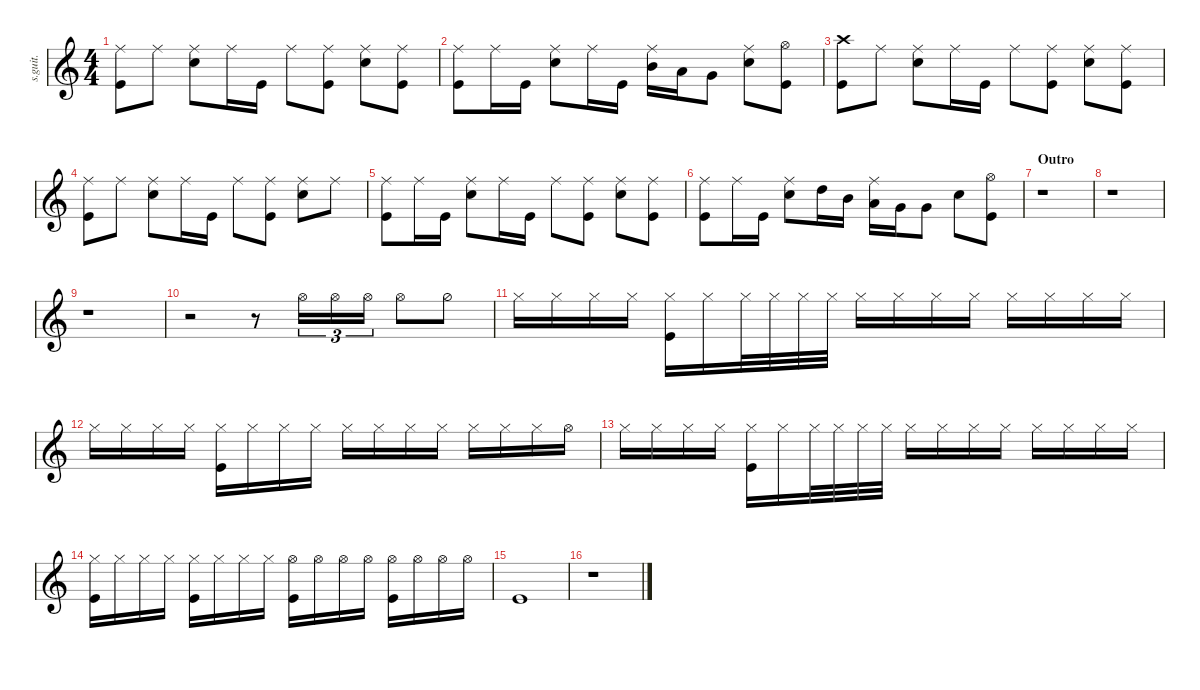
\defaultSystemsLayout 4
\hideDynamics
\bracketExtendMode nobrackets
\track ("Ethan Torchio (Drums)" "s.guit.") {instrument percussion}
\staff {score}
\articulation defaults
\ts (4 4)
\tempo (134 hide)
\clef g2
\ks c
("Ride (middle)" "Kick (hit)").8{lyrics (0 "") lyrics (1 "") lyrics (2 "") lyrics (3 "") lyrics (4 "") dy ff} "Ride (middle)".8{lyrics (0 "") lyrics (1 "") lyrics (2 "") lyrics (3 "") lyrics (4 "")} ("Ride (middle)" "Snare (hit) 2").8{lyrics (0 "") lyrics (1 "") lyrics (2 "") lyrics (3 "") lyrics (4 "")} "Ride (middle)".16{lyrics (0 "") lyrics (1 "") lyrics (2 "") lyrics (3 "") lyrics (4 "")} "Kick (hit)".16{lyrics (0 "") lyrics (1 "") lyrics (2 "") lyrics (3 "") lyrics (4 "")} "Ride (middle)".8{lyrics (0 "") lyrics (1 "") lyrics (2 "") lyrics (3 "") lyrics (4 "")} ("Ride (middle)" "Kick (hit)").8{lyrics (0 "") lyrics (1 "") lyrics (2 "") lyrics (3 "") lyrics (4 "")} ("Ride (middle)" "Snare (hit) 2").8{lyrics (0 "") lyrics (1 "") lyrics (2 "") lyrics (3 "") lyrics (4 "")} ("Ride (middle)" "Kick (hit)").8{lyrics (0 "") lyrics (1 "") lyrics (2 "") lyrics (3 "") lyrics (4 "")} |
("Ride (middle)" "Kick (hit)").8{lyrics (0 "") lyrics (1 "") lyrics (2 "") lyrics (3 "") lyrics (4 "")} "Ride (middle)".16{lyrics (0 "") lyrics (1 "") lyrics (2 "") lyrics (3 "") lyrics (4 "")} "Kick (hit)".16{lyrics (0 "") lyrics (1 "") lyrics (2 "") lyrics (3 "") lyrics (4 "")} ("Snare (hit) 2" "Ride (middle)").8{lyrics (0 "") lyrics (1 "") lyrics (2 "") lyrics (3 "") lyrics (4 "")} "Ride (middle)".16{lyrics (0 "") lyrics (1 "") lyrics (2 "") lyrics (3 "") lyrics (4 "")} "Kick (hit)".16{lyrics (0 "") lyrics (1 "") lyrics (2 "") lyrics (3 "") lyrics (4 "")} ("Ride (middle)" "Mid Tom (hit)").16{lyrics (0 "") lyrics (1 "") lyrics (2 "") lyrics (3 "") lyrics (4 "")} "Low Tom (hit)".16{lyrics (0 "") lyrics (1 "") lyrics (2 "") lyrics (3 "") lyrics (4 "")} "Very Low Tom (hit)".8{lyrics (0 "") lyrics (1 "") lyrics (2 "") lyrics (3 "") lyrics (4 "")} ("Ride (middle)" "Snare (hit) 2").8{lyrics (0 "") lyrics (1 "") lyrics (2 "") lyrics (3 "") lyrics (4 "")} ("Kick (hit)" "Hi-Hat (open)").8{lyrics (0 "") lyrics (1 "") lyrics (2 "") lyrics (3 "") lyrics (4 "")} |
("Crash high (hit)" "Kick (hit)").8{lyrics (0 "") lyrics (1 "") lyrics (2 "") lyrics (3 "") lyrics (4 "")} "Ride (middle)".8{lyrics (0 "") lyrics (1 "") lyrics (2 "") lyrics (3 "") lyrics (4 "")} ("Ride (middle)" "Snare (hit) 2").8{lyrics (0 "") lyrics (1 "") lyrics (2 "") lyrics (3 "") lyrics (4 "")} "Ride (middle)".16{lyrics (0 "") lyrics (1 "") lyrics (2 "") lyrics (3 "") lyrics (4 "")} "Kick (hit)".16{lyrics (0 "") lyrics (1 "") lyrics (2 "") lyrics (3 "") lyrics (4 "")} "Ride (middle)".8{lyrics (0 "") lyrics (1 "") lyrics (2 "") lyrics (3 "") lyrics (4 "")} ("Ride (middle)" "Kick (hit)").8{lyrics (0 "") lyrics (1 "") lyrics (2 "") lyrics (3 "") lyrics (4 "")} ("Ride (middle)" "Snare (hit) 2").8{lyrics (0 "") lyrics (1 "") lyrics (2 "") lyrics (3 "") lyrics (4 "")} ("Ride (middle)" "Kick (hit)").8{lyrics (0 "") lyrics (1 "") lyrics (2 "") lyrics (3 "") lyrics (4 "")} |
("Ride (middle)" "Kick (hit)").8{lyrics (0 "") lyrics (1 "") lyrics (2 "") lyrics (3 "") lyrics (4 "")} "Ride (middle)".8{lyrics (0 "") lyrics (1 "") lyrics (2 "") lyrics (3 "") lyrics (4 "")} ("Ride (middle)" "Snare (hit) 2").8{lyrics (0 "") lyrics (1 "") lyrics (2 "") lyrics (3 "") lyrics (4 "")} "Ride (middle)".16{lyrics (0 "") lyrics (1 "") lyrics (2 "") lyrics (3 "") lyrics (4 "")} "Kick (hit)".16{lyrics (0 "") lyrics (1 "") lyrics (2 "") lyrics (3 "") lyrics (4 "")} "Ride (middle)".8{lyrics (0 "") lyrics (1 "") lyrics (2 "") lyrics (3 "") lyrics (4 "")} ("Ride (middle)" "Kick (hit)").8{lyrics (0 "") lyrics (1 "") lyrics (2 "") lyrics (3 "") lyrics (4 "")} ("Ride (middle)" "Snare (hit) 2").8{lyrics (0 "") lyrics (1 "") lyrics (2 "") lyrics (3 "") lyrics (4 "")} "Ride (middle)".8{lyrics (0 "") lyrics (1 "") lyrics (2 "") lyrics (3 "") lyrics (4 "")} |
("Ride (middle)" "Kick (hit)").8{lyrics (0 "") lyrics (1 "") lyrics (2 "") lyrics (3 "") lyrics (4 "")} "Ride (middle)".16{lyrics (0 "") lyrics (1 "") lyrics (2 "") lyrics (3 "") lyrics (4 "")} "Kick (hit)".16{lyrics (0 "") lyrics (1 "") lyrics (2 "") lyrics (3 "") lyrics (4 "")} ("Ride (middle)" "Snare (hit) 2").8{lyrics (0 "") lyrics (1 "") lyrics (2 "") lyrics (3 "") lyrics (4 "")} "Ride (middle)".16{lyrics (0 "") lyrics (1 "") lyrics (2 "") lyrics (3 "") lyrics (4 "")} "Kick (hit)".16{lyrics (0 "") lyrics (1 "") lyrics (2 "") lyrics (3 "") lyrics (4 "")} "Ride (middle)".8{lyrics (0 "") lyrics (1 "") lyrics (2 "") lyrics (3 "") lyrics (4 "")} ("Ride (middle)" "Kick (hit)").8{lyrics (0 "") lyrics (1 "") lyrics (2 "") lyrics (3 "") lyrics (4 "")} ("Ride (middle)" "Snare (hit) 2").8{lyrics (0 "") lyrics (1 "") lyrics (2 "") lyrics (3 "") lyrics (4 "")} ("Ride (middle)" "Kick (hit)").8{lyrics (0 "") lyrics (1 "") lyrics (2 "") lyrics (3 "") lyrics (4 "")} |
("Kick (hit)" "Ride (middle)").8{lyrics (0 "") lyrics (1 "") lyrics (2 "") lyrics (3 "") lyrics (4 "")} "Ride (middle)".16{lyrics (0 "") lyrics (1 "") lyrics (2 "") lyrics (3 "") lyrics (4 "")} "Kick (hit)".16{lyrics (0 "") lyrics (1 "") lyrics (2 "") lyrics (3 "") lyrics (4 "")} ("Ride (middle)" "Snare (hit) 2").8{lyrics (0 "") lyrics (1 "") lyrics (2 "") lyrics (3 "") lyrics (4 "")} "High Tom (hit)".16{lyrics (0 "") lyrics (1 "") lyrics (2 "") lyrics (3 "") lyrics (4 "")} "Mid Tom (hit)".16{lyrics (0 "") lyrics (1 "") lyrics (2 "") lyrics (3 "") lyrics (4 "")} ("Ride (middle)" "Low Tom (hit)").16{lyrics (0 "") lyrics (1 "") lyrics (2 "") lyrics (3 "") lyrics (4 "")} "Very Low Tom (hit)".16{lyrics (0 "") lyrics (1 "") lyrics (2 "") lyrics (3 "") lyrics (4 "")} "Very Low Tom (hit)".8{lyrics (0 "") lyrics (1 "") lyrics (2 "") lyrics (3 "") lyrics (4 "")} "Snare (hit) 2".8{lyrics (0 "") lyrics (1 "") lyrics (2 "") lyrics (3 "") lyrics (4 "")} ("Kick (hit)" "Hi-Hat (open)").8{lyrics (0 "") lyrics (1 "") lyrics (2 "") lyrics (3 "") lyrics (4 "")} |
\section ("" "Outro")
r.1 |
r.1 |
r.1 |
r.2 r.8 "Hi-Hat (open)".16{tu (3 2) lyrics (0 "") lyrics (1 "") lyrics (2 "") lyrics (3 "") lyrics (4 "") dy mp} "Hi-Hat (open)".16{tu (3 2) lyrics (0 "") lyrics (1 "") lyrics (2 "") lyrics (3 "") lyrics (4 "") dy mf} "Hi-Hat (open)".16{tu (3 2) lyrics (0 "") lyrics (1 "") lyrics (2 "") lyrics (3 "") lyrics (4 "") dy f} "Hi-Hat (open)".8{lyrics (0 "") lyrics (1 "") lyrics (2 "") lyrics (3 "") lyrics (4 "") dy ff} "Hi-Hat (half)".8{lyrics (0 "") lyrics (1 "") lyrics (2 "") lyrics (3 "") lyrics (4 "")} |
"Hi-Hat (closed)".16{lyrics (0 "") lyrics (1 "") lyrics (2 "") lyrics (3 "") lyrics (4 "")} "Hi-Hat (closed)".16{lyrics (0 "") lyrics (1 "") lyrics (2 "") lyrics (3 "") lyrics (4 "") dy f} "Hi-Hat (closed)".16{lyrics (0 "") lyrics (1 "") lyrics (2 "") lyrics (3 "") lyrics (4 "") dy ff} "Hi-Hat (closed)".16{lyrics (0 "") lyrics (1 "") lyrics (2 "") lyrics (3 "") lyrics (4 "") dy f} ("Kick (hit)" "Hi-Hat (closed)").16{lyrics (0 "") lyrics (1 "") lyrics (2 "") lyrics (3 "") lyrics (4 "") dy ff} "Hi-Hat (closed)".16{lyrics (0 "") lyrics (1 "") lyrics (2 "") lyrics (3 "") lyrics (4 "")} "Hi-Hat (closed)".32{lyrics (0 "") lyrics (1 "") lyrics (2 "") lyrics (3 "") lyrics (4 "") dy mp} "Hi-Hat (closed)".32{lyrics (0 "") lyrics (1 "") lyrics (2 "") lyrics (3 "") lyrics (4 "") dy mf} "Hi-Hat (closed)".32{lyrics (0 "") lyrics (1 "") lyrics (2 "") lyrics (3 "") lyrics (4 "") dy f} "Hi-Hat (closed)".32{lyrics (0 "") lyrics (1 "") lyrics (2 "") lyrics (3 "") lyrics (4 "") dy ff} "Hi-Hat (closed)".16{lyrics (0 "") lyrics (1 "") lyrics (2 "") lyrics (3 "") lyrics (4 "")} "Hi-Hat (closed)".16{lyrics (0 "") lyrics (1 "") lyrics (2 "") lyrics (3 "") lyrics (4 "")} "Hi-Hat (closed)".16{lyrics (0 "") lyrics (1 "") lyrics (2 "") lyrics (3 "") lyrics (4 "")} "Hi-Hat (closed)".16{lyrics (0 "") lyrics (1 "") lyrics (2 "") lyrics (3 "") lyrics (4 "") dy f} "Hi-Hat (closed)".16{lyrics (0 "") lyrics (1 "") lyrics (2 "") lyrics (3 "") lyrics (4 "") dy ff} "Hi-Hat (closed)".16{lyrics (0 "") lyrics (1 "") lyrics (2 "") lyrics (3 "") lyrics (4 "") dy f} "Hi-Hat (closed)".16{lyrics (0 "") lyrics (1 "") lyrics (2 "") lyrics (3 "") lyrics (4 "") dy ff} "Hi-Hat (closed)".16{lyrics (0 "") lyrics (1 "") lyrics (2 "") lyrics (3 "") lyrics (4 "") dy f} |
"Hi-Hat (closed)".16{lyrics (0 "") lyrics (1 "") lyrics (2 "") lyrics (3 "") lyrics (4 "") dy ff} "Hi-Hat (closed)".16{lyrics (0 "") lyrics (1 "") lyrics (2 "") lyrics (3 "") lyrics (4 "") dy f} "Hi-Hat (closed)".16{lyrics (0 "") lyrics (1 "") lyrics (2 "") lyrics (3 "") lyrics (4 "") dy ff} "Hi-Hat (closed)".16{lyrics (0 "") lyrics (1 "") lyrics (2 "") lyrics (3 "") lyrics (4 "") dy f} ("Hi-Hat (closed)" "Kick (hit)").16{lyrics (0 "") lyrics (1 "") lyrics (2 "") lyrics (3 "") lyrics (4 "") dy ff} "Hi-Hat (closed)".16{lyrics (0 "") lyrics (1 "") lyrics (2 "") lyrics (3 "") lyrics (4 "") dy f} "Hi-Hat (closed)".16{lyrics (0 "") lyrics (1 "") lyrics (2 "") lyrics (3 "") lyrics (4 "") dy ff} "Hi-Hat (closed)".16{lyrics (0 "") lyrics (1 "") lyrics (2 "") lyrics (3 "") lyrics (4 "") dy f} "Hi-Hat (closed)".16{lyrics (0 "") lyrics (1 "") lyrics (2 "") lyrics (3 "") lyrics (4 "") dy ff} "Hi-Hat (closed)".16{lyrics (0 "") lyrics (1 "") lyrics (2 "") lyrics (3 "") lyrics (4 "") dy f} "Hi-Hat (closed)".16{lyrics (0 "") lyrics (1 "") lyrics (2 "") lyrics (3 "") lyrics (4 "") dy ff} "Hi-Hat (closed)".16{lyrics (0 "") lyrics (1 "") lyrics (2 "") lyrics (3 "") lyrics (4 "") dy f} "Hi-Hat (closed)".16{lyrics (0 "") lyrics (1 "") lyrics (2 "") lyrics (3 "") lyrics (4 "") dy ff} "Hi-Hat (closed)".16{lyrics (0 "") lyrics (1 "") lyrics (2 "") lyrics (3 "") lyrics (4 "") dy f} "Hi-Hat (closed)".16{lyrics (0 "") lyrics (1 "") lyrics (2 "") lyrics (3 "") lyrics (4 "") dy ff} "Hi-Hat (open)".16{lyrics (0 "") lyrics (1 "") lyrics (2 "") lyrics (3 "") lyrics (4 "") dy f} |
"Hi-Hat (closed)".16{lyrics (0 "") lyrics (1 "") lyrics (2 "") lyrics (3 "") lyrics (4 "") dy ff} "Hi-Hat (closed)".16{lyrics (0 "") lyrics (1 "") lyrics (2 "") lyrics (3 "") lyrics (4 "") dy f} "Hi-Hat (closed)".16{lyrics (0 "") lyrics (1 "") lyrics (2 "") lyrics (3 "") lyrics (4 "") dy ff} "Hi-Hat (closed)".16{lyrics (0 "") lyrics (1 "") lyrics (2 "") lyrics (3 "") lyrics (4 "") dy f} ("Kick (hit)" "Hi-Hat (closed)").16{lyrics (0 "") lyrics (1 "") lyrics (2 "") lyrics (3 "") lyrics (4 "") dy ff} "Hi-Hat (closed)".16{lyrics (0 "") lyrics (1 "") lyrics (2 "") lyrics (3 "") lyrics (4 "")} "Hi-Hat (closed)".32{lyrics (0 "") lyrics (1 "") lyrics (2 "") lyrics (3 "") lyrics (4 "") dy mp} "Hi-Hat (closed)".32{lyrics (0 "") lyrics (1 "") lyrics (2 "") lyrics (3 "") lyrics (4 "") dy mf} "Hi-Hat (closed)".32{lyrics (0 "") lyrics (1 "") lyrics (2 "") lyrics (3 "") lyrics (4 "") dy f} "Hi-Hat (closed)".32{lyrics (0 "") lyrics (1 "") lyrics (2 "") lyrics (3 "") lyrics (4 "") dy ff} "Hi-Hat (closed)".16{lyrics (0 "") lyrics (1 "") lyrics (2 "") lyrics (3 "") lyrics (4 "")} "Hi-Hat (closed)".16{lyrics (0 "") lyrics (1 "") lyrics (2 "") lyrics (3 "") lyrics (4 "")} "Hi-Hat (closed)".16{lyrics (0 "") lyrics (1 "") lyrics (2 "") lyrics (3 "") lyrics (4 "")} "Hi-Hat (closed)".16{lyrics (0 "") lyrics (1 "") lyrics (2 "") lyrics (3 "") lyrics (4 "") dy f} "Hi-Hat (closed)".16{lyrics (0 "") lyrics (1 "") lyrics (2 "") lyrics (3 "") lyrics (4 "") dy ff} "Hi-Hat (closed)".16{lyrics (0 "") lyrics (1 "") lyrics (2 "") lyrics (3 "") lyrics (4 "") dy f} "Hi-Hat (closed)".16{lyrics (0 "") lyrics (1 "") lyrics (2 "") lyrics (3 "") lyrics (4 "") dy ff} "Hi-Hat (closed)".16{lyrics (0 "") lyrics (1 "") lyrics (2 "") lyrics (3 "") lyrics (4 "") dy f} |
("Hi-Hat (closed)" "Kick (hit)").16{lyrics (0 "") lyrics (1 "") lyrics (2 "") lyrics (3 "") lyrics (4 "") dy ff} "Hi-Hat (closed)".16{lyrics (0 "") lyrics (1 "") lyrics (2 "") lyrics (3 "") lyrics (4 "") dy f} "Hi-Hat (closed)".16{lyrics (0 "") lyrics (1 "") lyrics (2 "") lyrics (3 "") lyrics (4 "") dy ff} "Hi-Hat (closed)".16{lyrics (0 "") lyrics (1 "") lyrics (2 "") lyrics (3 "") lyrics (4 "") dy f} ("Hi-Hat (closed)" "Kick (hit)").16{lyrics (0 "") lyrics (1 "") lyrics (2 "") lyrics (3 "") lyrics (4 "") dy ff} "Hi-Hat (closed)".16{lyrics (0 "") lyrics (1 "") lyrics (2 "") lyrics (3 "") lyrics (4 "") dy f} "Hi-Hat (closed)".16{lyrics (0 "") lyrics (1 "") lyrics (2 "") lyrics (3 "") lyrics (4 "") dy ff} "Hi-Hat (closed)".16{lyrics (0 "") lyrics (1 "") lyrics (2 "") lyrics (3 "") lyrics (4 "") dy f} ("Hi-Hat (open)" "Kick (hit)").16{lyrics (0 "") lyrics (1 "") lyrics (2 "") lyrics (3 "") lyrics (4 "") dy pp} "Hi-Hat (open)".16{lyrics (0 "") lyrics (1 "") lyrics (2 "") lyrics (3 "") lyrics (4 "") dy p} "Hi-Hat (open)".16{lyrics (0 "") lyrics (1 "") lyrics (2 "") lyrics (3 "") lyrics (4 "") dy mp} "Hi-Hat (open)".16{lyrics (0 "") lyrics (1 "") lyrics (2 "") lyrics (3 "") lyrics (4 "") dy mf} ("Hi-Hat (open)" "Kick (hit)").16{lyrics (0 "") lyrics (1 "") lyrics (2 "") lyrics (3 "") lyrics (4 "") dy f} "Hi-Hat (open)".16{lyrics (0 "") lyrics (1 "") lyrics (2 "") lyrics (3 "") lyrics (4 "") dy ff} "Hi-Hat (open)".16{lyrics (0 "") lyrics (1 "") lyrics (2 "") lyrics (3 "") lyrics (4 "")} "Hi-Hat (open)".16{lyrics (0 "") lyrics (1 "") lyrics (2 "") lyrics (3 "") lyrics (4 "")} |
"Kick (hit)".1{lyrics (0 "") lyrics (1 "") lyrics (2 "") lyrics (3 "") lyrics (4 "")} |
r.1
